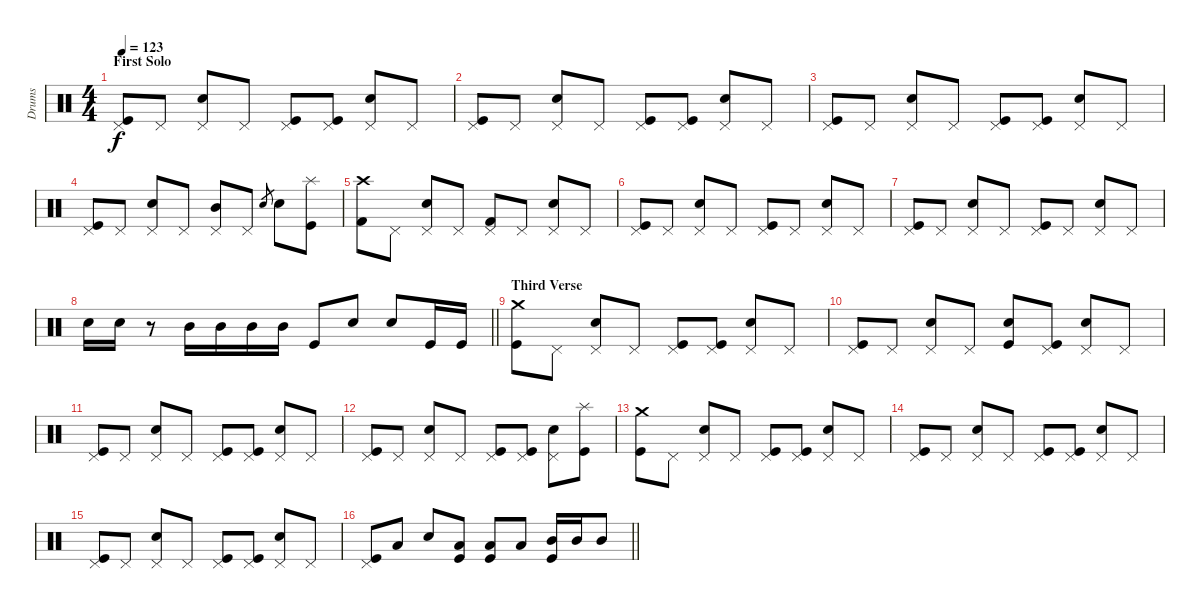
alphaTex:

\track ("Drums" "Drums") {instrument percussion}
\staff {score}
\articulation defaults
\ts (4 4)
\section ("" "First Solo")
\tempo 123
\clef neutral
\ks c
("Pedal Hi-Hat (hit)" "Kick (hit)").8{dy f} "Pedal Hi-Hat (hit)".8 ("Pedal Hi-Hat (hit)" "Electric Snare (hit)").8 "Pedal Hi-Hat (hit)".8 ("Pedal Hi-Hat (hit)" "Kick (hit)").8 ("Pedal Hi-Hat (hit)" "Kick (hit)").8 ("Pedal Hi-Hat (hit)" "Electric Snare (hit)").8 "Pedal Hi-Hat (hit)".8 |
("Pedal Hi-Hat (hit)" "Kick (hit)").8 "Pedal Hi-Hat (hit)".8 ("Pedal Hi-Hat (hit)" "Electric Snare (hit)").8 "Pedal Hi-Hat (hit)".8 ("Pedal Hi-Hat (hit)" "Kick (hit)").8 ("Pedal Hi-Hat (hit)" "Kick (hit)").8 ("Pedal Hi-Hat (hit)" "Electric Snare (hit)").8 "Pedal Hi-Hat (hit)".8 |
("Pedal Hi-Hat (hit)" "Kick (hit)").8 "Pedal Hi-Hat (hit)".8 ("Pedal Hi-Hat (hit)" "Electric Snare (hit)").8 "Pedal Hi-Hat (hit)".8 ("Pedal Hi-Hat (hit)" "Kick (hit)").8 ("Pedal Hi-Hat (hit)" "Kick (hit)").8 ("Pedal Hi-Hat (hit)" "Electric Snare (hit)").8 "Pedal Hi-Hat (hit)".8 |
("Pedal Hi-Hat (hit)" "Kick (hit)").8 "Pedal Hi-Hat (hit)".8 ("Pedal Hi-Hat (hit)" "Electric Snare (hit)").8 "Pedal Hi-Hat (hit)".8 ("Pedal Hi-Hat (hit)" "Mid Tom (hit)").8 "Pedal Hi-Hat (hit)".8 "Electric Snare (hit)".8{gr} "Electric Snare (hit)".8 ("Splash (hit)" "Kick (hit)").8 |
("Crash high (hit)" "Kick (hit) 2").8 "Pedal Hi-Hat (hit)".8 ("Pedal Hi-Hat (hit)" "Snare (hit) 2").8 "Pedal Hi-Hat (hit)".8 ("Pedal Hi-Hat (hit)" "Kick (hit) 2").8 "Pedal Hi-Hat (hit)".8 ("Pedal Hi-Hat (hit)" "Snare (hit) 2").8 "Pedal Hi-Hat (hit)".8 |
("Pedal Hi-Hat (hit)" "Kick (hit)").8 "Pedal Hi-Hat (hit)".8 ("Pedal Hi-Hat (hit)" "Electric Snare (hit)").8 "Pedal Hi-Hat (hit)".8 ("Pedal Hi-Hat (hit)" "Kick (hit)").8 "Pedal Hi-Hat (hit)".8 ("Pedal Hi-Hat (hit)" "Electric Snare (hit)").8 "Pedal Hi-Hat (hit)".8 |
("Pedal Hi-Hat (hit)" "Kick (hit)").8 "Pedal Hi-Hat (hit)".8 ("Pedal Hi-Hat (hit)" "Electric Snare (hit)").8 "Pedal Hi-Hat (hit)".8 ("Pedal Hi-Hat (hit)" "Kick (hit)").8 "Pedal Hi-Hat (hit)".8 ("Pedal Hi-Hat (hit)" "Electric Snare (hit)").8 "Pedal Hi-Hat (hit)".8 |
\barLineRight lightlight "Electric Snare (hit)".16 "Electric Snare (hit)".16
r.8 "Mid Tom (hit)".16 "Mid Tom (hit)".16 "Mid Tom (hit)".16 "Mid Tom (hit)".16 "Kick (hit)".8 "Electric Snare (hit)".8 "Electric Snare (hit)".8 "Kick (hit)".16 "Kick (hit)".16 |
\section ("" "Third Verse")
("Crash medium (hit)" "Kick (hit)").8 "Pedal Hi-Hat (hit)".8 ("Pedal Hi-Hat (hit)" "Electric Snare (hit)").8 "Pedal Hi-Hat (hit)".8 ("Pedal Hi-Hat (hit)" "Kick (hit)").8 ("Pedal Hi-Hat (hit)" "Kick (hit)").8 ("Pedal Hi-Hat (hit)" "Electric Snare (hit)").8 "Pedal Hi-Hat (hit)".8 |
("Pedal Hi-Hat (hit)" "Kick (hit)").8 "Pedal Hi-Hat (hit)".8 ("Pedal Hi-Hat (hit)" "Electric Snare (hit)").8 "Pedal Hi-Hat (hit)".8 ("Snare (hit)" "Kick (hit)").8 ("Pedal Hi-Hat (hit)" "Kick (hit)").8 ("Pedal Hi-Hat (hit)" "Electric Snare (hit)").8 "Pedal Hi-Hat (hit)".8 |
("Pedal Hi-Hat (hit)" "Kick (hit)").8 "Pedal Hi-Hat (hit)".8 ("Pedal Hi-Hat (hit)" "Electric Snare (hit)").8 "Pedal Hi-Hat (hit)".8 ("Pedal Hi-Hat (hit)" "Kick (hit)").8 ("Pedal Hi-Hat (hit)" "Kick (hit)").8 ("Pedal Hi-Hat (hit)" "Electric Snare (hit)").8 "Pedal Hi-Hat (hit)".8 |
("Pedal Hi-Hat (hit)" "Kick (hit)").8 "Pedal Hi-Hat (hit)".8 ("Pedal Hi-Hat (hit)" "Electric Snare (hit)").8 "Pedal Hi-Hat (hit)".8 ("Pedal Hi-Hat (hit)" "Kick (hit)").8 ("Pedal Hi-Hat (hit)" "Kick (hit)").8 ("Pedal Hi-Hat (hit)" "Electric Snare (hit)").8 ("Splash (hit)" "Kick (hit)").8 |
("Crash medium (hit)" "Kick (hit)").8 "Pedal Hi-Hat (hit)".8 ("Pedal Hi-Hat (hit)" "Electric Snare (hit)").8 "Pedal Hi-Hat (hit)".8 ("Pedal Hi-Hat (hit)" "Kick (hit)").8 ("Pedal Hi-Hat (hit)" "Kick (hit)").8 ("Pedal Hi-Hat (hit)" "Electric Snare (hit)").8 "Pedal Hi-Hat (hit)".8 |
("Pedal Hi-Hat (hit)" "Kick (hit)").8 "Pedal Hi-Hat (hit)".8 ("Pedal Hi-Hat (hit)" "Electric Snare (hit)").8 "Pedal Hi-Hat (hit)".8 ("Pedal Hi-Hat (hit)" "Kick (hit)").8 ("Pedal Hi-Hat (hit)" "Kick (hit)").8 ("Pedal Hi-Hat (hit)" "Electric Snare (hit)").8 "Pedal Hi-Hat (hit)".8 |
("Pedal Hi-Hat (hit)" "Kick (hit)").8 "Pedal Hi-Hat (hit)".8 ("Pedal Hi-Hat (hit)" "Electric Snare (hit)").8 "Pedal Hi-Hat (hit)".8 ("Pedal Hi-Hat (hit)" "Kick (hit)").8 ("Pedal Hi-Hat (hit)" "Kick (hit)").8 ("Pedal Hi-Hat (hit)" "Electric Snare (hit)").8 "Pedal Hi-Hat (hit)".8 |
\barLineRight lightlight
("Pedal Hi-Hat (hit)" "Kick (hit)").8 "Low Tom (hit)".8 "Electric Snare (hit)".8 ("Low Tom (hit)" "Kick (hit)").8 ("Low Tom (hit)" "Kick (hit)").8 "Low Tom (hit)".8 ("Mid Tom (hit)" "Kick (hit)").16 "Mid Tom (hit)".16 "Mid Tom (hit)".8
